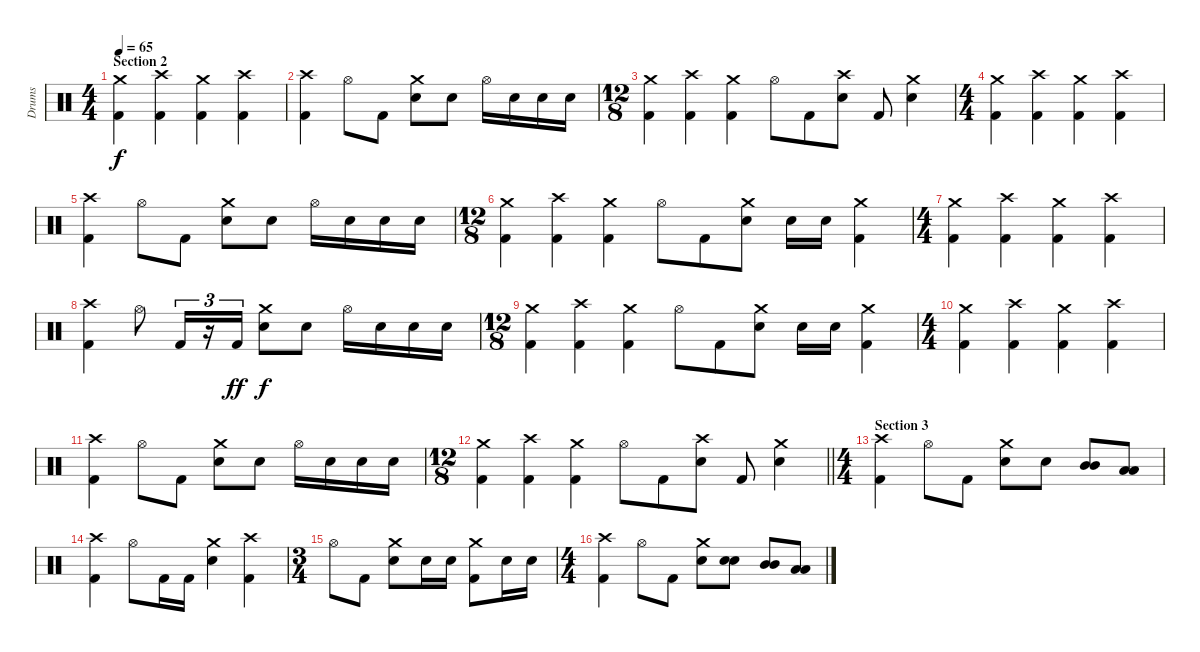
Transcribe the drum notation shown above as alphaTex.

\track ("Drums" "Drums") {instrument percussion}
\staff {score}
\articulation defaults
\ts (4 4)
\section ("" "Section 2")
\tempo 65
\clef neutral
\ks c
("Crash medium (hit)" "Kick (hit) 2").4{dy f} ("Crash high (hit)" "Kick (hit) 2").4 ("Crash medium (hit)" "Kick (hit) 2").4 ("Crash high (hit)" "Kick (hit) 2").4 |
("Crash high (hit)" "Kick (hit) 2").4 "Hi-Hat (open)".8 "Kick (hit) 2".8 ("Crash medium (hit)" "Electric Snare (hit)").8 "Electric Snare (hit)".8 "Hi-Hat (open)".16 "Electric Snare (hit)".16 "Electric Snare (hit)".16 "Electric Snare (hit)".16 |
\ts (12 8)
("Crash medium (hit)" "Kick (hit) 2").4 ("Crash high (hit)" "Kick (hit) 2").4 ("Crash medium (hit)" "Kick (hit) 2").4 "Hi-Hat (open)".8 "Kick (hit) 2".8 ("Crash high (hit)" "Electric Snare (hit)").8 "Kick (hit) 2".8 ("Crash medium (hit)" "Electric Snare (hit)").4 |
\ts (4 4)
("Crash medium (hit)" "Kick (hit) 2").4 ("Crash high (hit)" "Kick (hit) 2").4 ("Crash medium (hit)" "Kick (hit) 2").4 ("Crash high (hit)" "Kick (hit) 2").4 |
("Crash high (hit)" "Kick (hit) 2").4 "Hi-Hat (open)".8 "Kick (hit) 2".8 ("Crash medium (hit)" "Electric Snare (hit)").8 "Electric Snare (hit)".8 "Hi-Hat (open)".16 "Electric Snare (hit)".16 "Electric Snare (hit)".16 "Electric Snare (hit)".16 |
\ts (12 8)
("Crash medium (hit)" "Kick (hit) 2").4 ("Crash high (hit)" "Kick (hit) 2").4 ("Crash medium (hit)" "Kick (hit) 2").4 "Hi-Hat (open)".8 "Kick (hit) 2".8 ("Crash medium (hit)" "Electric Snare (hit)").8 "Electric Snare (hit)".16 "Electric Snare (hit)".16 ("Crash medium (hit)" "Kick (hit) 2").4 |
\ts (4 4)
("Crash medium (hit)" "Kick (hit) 2").4 ("Crash high (hit)" "Kick (hit) 2").4 ("Crash medium (hit)" "Kick (hit) 2").4 ("Crash high (hit)" "Kick (hit) 2").4 |
("Crash high (hit)" "Kick (hit) 2").4 "Hi-Hat (open)".8 "Kick (hit) 2".16{tu (3 2)} r.16{tu (3 2)} "Kick (hit) 2".16{tu (3 2) dy ff} ("Crash medium (hit)" "Electric Snare (hit)").8{dy f} "Electric Snare (hit)".8 "Hi-Hat (open)".16 "Electric Snare (hit)".16 "Electric Snare (hit)".16 "Electric Snare (hit)".16 |
\ts (12 8)
("Crash medium (hit)" "Kick (hit) 2").4 ("Crash high (hit)" "Kick (hit) 2").4 ("Crash medium (hit)" "Kick (hit) 2").4 "Hi-Hat (open)".8 "Kick (hit) 2".8 ("Crash medium (hit)" "Electric Snare (hit)").8 "Electric Snare (hit)".16 "Electric Snare (hit)".16 ("Crash medium (hit)" "Kick (hit) 2").4 |
\ts (4 4)
("Crash medium (hit)" "Kick (hit) 2").4 ("Crash high (hit)" "Kick (hit) 2").4 ("Crash medium (hit)" "Kick (hit) 2").4 ("Crash high (hit)" "Kick (hit) 2").4 |
("Crash high (hit)" "Kick (hit) 2").4 "Hi-Hat (open)".8 "Kick (hit) 2".8 ("Crash medium (hit)" "Electric Snare (hit)").8 "Electric Snare (hit)".8 "Hi-Hat (open)".16 "Electric Snare (hit)".16 "Electric Snare (hit)".16 "Electric Snare (hit)".16 |
\ts (12 8)
\barLineRight lightlight
("Crash medium (hit)" "Kick (hit) 2").4 ("Crash high (hit)" "Kick (hit) 2").4 ("Crash medium (hit)" "Kick (hit) 2").4 "Hi-Hat (open)".8 "Kick (hit) 2".8 ("Crash high (hit)" "Electric Snare (hit)").8 "Kick (hit) 2".8 ("Crash medium (hit)" "Electric Snare (hit)").4 |
\ts (4 4)
\section ("" "Section 3")
("Crash high (hit)" "Kick (hit) 2").4 "Hi-Hat (open)".8 "Kick (hit) 2".8 ("Crash medium (hit)" "Electric Snare (hit)").8 "Electric Snare (hit)".8 ("Mid Tom (hit)" "Mid Tom (hit)").8{bu 60} ("Low Tom (hit)" "Low Tom (hit)").8{bu 60} |
("Crash high (hit)" "Kick (hit) 2").4 "Hi-Hat (open)".8 "Kick (hit) 2".16 "Kick (hit) 2".16 ("Crash medium (hit)" "Electric Snare (hit)").4 ("Crash high (hit)" "Kick (hit) 2").4 |
\ts (3 4)
"Hi-Hat (open)".8 "Kick (hit) 2".8 ("Crash medium (hit)" "Electric Snare (hit)").8 "Electric Snare (hit)".16 "Electric Snare (hit)".16 ("Crash medium (hit)" "Kick (hit) 2").8 "Electric Snare (hit)".16 "Electric Snare (hit)".16 |
\ts (4 4)
("Crash high (hit)" "Kick (hit) 2").4 "Hi-Hat (open)".8 "Kick (hit) 2".8 ("Crash medium (hit)" "Electric Snare (hit)").8 ("Electric Snare (hit)" "Electric Snare (hit)").8{bu 60} ("Mid Tom (hit)" "Mid Tom (hit)").8{bu 60} ("Low Tom (hit)" "Low Tom (hit)").8{bu 60}
